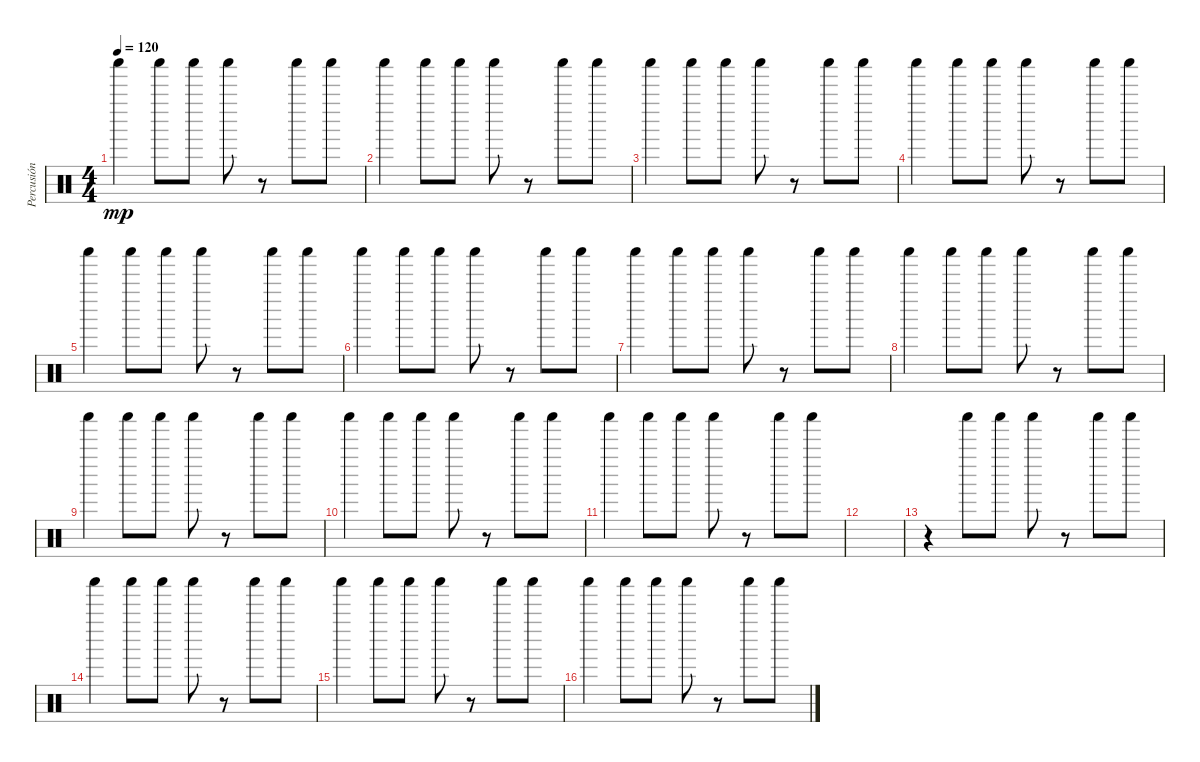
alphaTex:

\track ("Percusión" "Percusión") {instrument percussion}
\staff {score}
\articulation defaults
\ts (4 4)
\tempo 120
\clef neutral
\ks c "Shaker (hit)".4{dy mp} "Shaker (hit)".8 "Shaker (hit)".8 "Shaker (hit)".8
r.8 "Shaker (hit)".8 "Shaker (hit)".8 |
"Shaker (hit)".4 "Shaker (hit)".8 "Shaker (hit)".8 "Shaker (hit)".8 r.8 "Shaker (hit)".8 "Shaker (hit)".8 |
"Shaker (hit)".4 "Shaker (hit)".8 "Shaker (hit)".8 "Shaker (hit)".8 r.8 "Shaker (hit)".8 "Shaker (hit)".8 |
"Shaker (hit)".4 "Shaker (hit)".8 "Shaker (hit)".8 "Shaker (hit)".8 r.8 "Shaker (hit)".8 "Shaker (hit)".8 |
"Shaker (hit)".4 "Shaker (hit)".8 "Shaker (hit)".8 "Shaker (hit)".8 r.8 "Shaker (hit)".8 "Shaker (hit)".8 |
"Shaker (hit)".4 "Shaker (hit)".8 "Shaker (hit)".8 "Shaker (hit)".8 r.8 "Shaker (hit)".8 "Shaker (hit)".8 |
"Shaker (hit)".4 "Shaker (hit)".8 "Shaker (hit)".8 "Shaker (hit)".8 r.8 "Shaker (hit)".8 "Shaker (hit)".8 |
"Shaker (hit)".4 "Shaker (hit)".8 "Shaker (hit)".8 "Shaker (hit)".8 r.8 "Shaker (hit)".8 "Shaker (hit)".8 |
"Shaker (hit)".4 "Shaker (hit)".8 "Shaker (hit)".8 "Shaker (hit)".8 r.8 "Shaker (hit)".8 "Shaker (hit)".8 |
"Shaker (hit)".4 "Shaker (hit)".8 "Shaker (hit)".8 "Shaker (hit)".8 r.8 "Shaker (hit)".8 "Shaker (hit)".8 |
"Shaker (hit)".4 "Shaker (hit)".8 "Shaker (hit)".8 "Shaker (hit)".8 r.8 "Shaker (hit)".8 "Shaker (hit)".8 |
|
r.4 "Shaker (hit)".8 "Shaker (hit)".8 "Shaker (hit)".8 r.8 "Shaker (hit)".8 "Shaker (hit)".8 |
"Shaker (hit)".4 "Shaker (hit)".8 "Shaker (hit)".8 "Shaker (hit)".8 r.8 "Shaker (hit)".8 "Shaker (hit)".8 |
"Shaker (hit)".4 "Shaker (hit)".8 "Shaker (hit)".8 "Shaker (hit)".8 r.8 "Shaker (hit)".8 "Shaker (hit)".8 |
"Shaker (hit)".4 "Shaker (hit)".8 "Shaker (hit)".8 "Shaker (hit)".8 r.8 "Shaker (hit)".8 "Shaker (hit)".8
